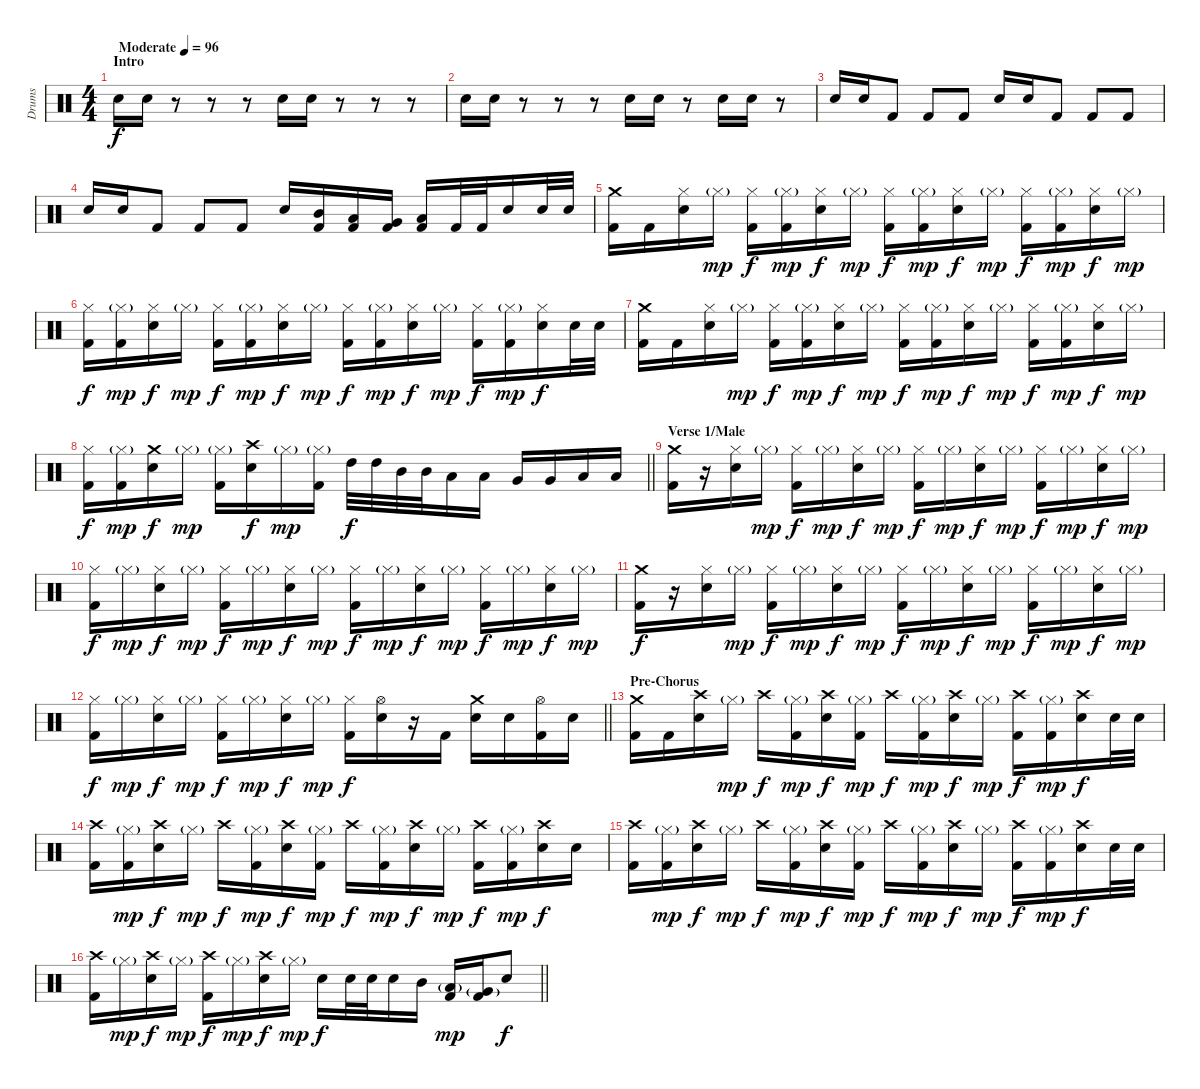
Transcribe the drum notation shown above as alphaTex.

\track ("Drums" "Drums") {instrument percussion}
\staff {score}
\articulation defaults
\ts (4 4)
\section ("" "Intro")
\tempo (96 "Moderate")
\clef neutral
\ks c "Electric Snare (hit)".16{dy f} "Electric Snare (hit)".16
r.8 r.8 r.8 "Electric Snare (hit)".16 "Electric Snare (hit)".16 r.8 r.8 r.8 |
"Electric Snare (hit)".16 "Electric Snare (hit)".16 r.8 r.8 r.8 "Electric Snare (hit)".16 "Electric Snare (hit)".16 r.8 "Electric Snare (hit)".16 "Electric Snare (hit)".16 r.8 |
"Electric Snare (hit)".16 "Electric Snare (hit)".16 "Kick (hit) 2".8 "Kick (hit) 2".8 "Kick (hit) 2".8 "Electric Snare (hit)".16 "Electric Snare (hit)".16 "Kick (hit) 2".8 "Kick (hit) 2".8 "Kick (hit) 2".8 |
"Electric Snare (hit)".16 "Electric Snare (hit)".16 "Kick (hit) 2".8 "Kick (hit) 2".8 "Kick (hit) 2".8 "Electric Snare (hit)".16 ("Mid Tom (hit)" "Kick (hit) 2").16 ("Low Tom (hit)" "Kick (hit) 2").16 ("Very Low Tom (hit)" "Kick (hit) 2").16 ("Low Floor Tom (hit)" "Kick (hit) 2").16 "Kick (hit) 2".32 "Kick (hit) 2".32 "Electric Snare (hit)".16 "Electric Snare (hit)".32 "Electric Snare (hit)".32 |
("Crash medium (hit)" "Kick (hit) 2").16 "Kick (hit) 2".16 ("Hi-Hat (closed)" "Electric Snare (hit)").16 "Hi-Hat (closed)"{g}.16{dy mp} ("Hi-Hat (closed)" "Kick (hit) 2").16{dy f} ("Hi-Hat (closed)"{g} "Kick (hit) 2").16{dy mp} ("Hi-Hat (closed)" "Electric Snare (hit)").16{dy f} "Hi-Hat (closed)"{g}.16{dy mp} ("Hi-Hat (closed)" "Kick (hit) 2").16{dy f} ("Hi-Hat (closed)"{g} "Kick (hit) 2").16{dy mp} ("Hi-Hat (closed)" "Electric Snare (hit)").16{dy f} "Hi-Hat (closed)"{g}.16{dy mp} ("Hi-Hat (closed)" "Kick (hit) 2").16{dy f} ("Hi-Hat (closed)"{g} "Kick (hit) 2").16{dy mp} ("Hi-Hat (closed)" "Electric Snare (hit)").16{dy f} "Hi-Hat (closed)"{g}.16{dy mp} |
("Hi-Hat (closed)" "Kick (hit) 2").16{dy f} ("Hi-Hat (closed)"{g} "Kick (hit) 2").16{dy mp} ("Hi-Hat (closed)" "Electric Snare (hit)").16{dy f} "Hi-Hat (closed)"{g}.16{dy mp} ("Hi-Hat (closed)" "Kick (hit) 2").16{dy f} ("Hi-Hat (closed)"{g} "Kick (hit) 2").16{dy mp} ("Hi-Hat (closed)" "Electric Snare (hit)").16{dy f} "Hi-Hat (closed)"{g}.16{dy mp} ("Hi-Hat (closed)" "Kick (hit) 2").16{dy f} ("Hi-Hat (closed)"{g} "Kick (hit) 2").16{dy mp} ("Hi-Hat (closed)" "Electric Snare (hit)").16{dy f} "Hi-Hat (closed)"{g}.16{dy mp} ("Hi-Hat (closed)" "Kick (hit) 2").16{dy f} ("Hi-Hat (closed)"{g} "Kick (hit) 2").16{dy mp} ("Hi-Hat (closed)" "Electric Snare (hit)").16{dy f} "Electric Snare (hit)".32 "Electric Snare (hit)".32 |
("Crash medium (hit)" "Kick (hit) 2").16 "Kick (hit) 2".16 ("Hi-Hat (closed)" "Electric Snare (hit)").16 "Hi-Hat (closed)"{g}.16{dy mp} ("Hi-Hat (closed)" "Kick (hit) 2").16{dy f} ("Hi-Hat (closed)"{g} "Kick (hit) 2").16{dy mp} ("Hi-Hat (closed)" "Electric Snare (hit)").16{dy f} "Hi-Hat (closed)"{g}.16{dy mp} ("Hi-Hat (closed)" "Kick (hit) 2").16{dy f} ("Hi-Hat (closed)"{g} "Kick (hit) 2").16{dy mp} ("Hi-Hat (closed)" "Electric Snare (hit)").16{dy f} "Hi-Hat (closed)"{g}.16{dy mp} ("Hi-Hat (closed)" "Kick (hit) 2").16{dy f} ("Hi-Hat (closed)"{g} "Kick (hit) 2").16{dy mp} ("Hi-Hat (closed)" "Electric Snare (hit)").16{dy f} "Hi-Hat (closed)"{g}.16{dy mp} |
\barLineRight lightlight
("Hi-Hat (closed)" "Kick (hit) 2").16{dy f} ("Hi-Hat (closed)"{g} "Kick (hit) 2").16{dy mp} ("Crash medium (hit)" "Electric Snare (hit)").16{dy f} "Hi-Hat (closed)"{g}.16{dy mp} ("Hi-Hat (closed)"{g} "Kick (hit) 2").16 ("Crash high (hit)" "Electric Snare (hit)").16{dy f} "Hi-Hat (closed)"{g}.16{dy mp} ("Hi-Hat (closed)"{g} "Kick (hit) 2").16 "High Tom (hit)".32{dy f} "High Tom (hit)".32 "Mid Tom (hit)".32 "Mid Tom (hit)".32 "Low Tom (hit)".16 "Low Tom (hit)".16 "Very Low Tom (hit)".16 "Very Low Tom (hit)".16 "Low Floor Tom (hit)".16 "Low Floor Tom (hit)".16 |
\section ("" "Verse 1/Male")
("Crash medium (hit)" "Kick (hit) 2").16 r.16 ("Hi-Hat (closed)" "Electric Snare (hit)").16 "Hi-Hat (closed)"{g}.16{dy mp} ("Hi-Hat (closed)" "Kick (hit) 2").16{dy f} "Hi-Hat (closed)"{g}.16{dy mp} ("Hi-Hat (closed)" "Electric Snare (hit)").16{dy f} "Hi-Hat (closed)"{g}.16{dy mp} ("Hi-Hat (closed)" "Kick (hit) 2").16{dy f} "Hi-Hat (closed)"{g}.16{dy mp} ("Hi-Hat (closed)" "Electric Snare (hit)").16{dy f} "Hi-Hat (closed)"{g}.16{dy mp} ("Hi-Hat (closed)" "Kick (hit) 2").16{dy f} "Hi-Hat (closed)"{g}.16{dy mp} ("Hi-Hat (closed)" "Electric Snare (hit)").16{dy f} "Hi-Hat (closed)"{g}.16{dy mp} |
("Hi-Hat (closed)" "Kick (hit) 2").16{dy f} "Hi-Hat (closed)"{g}.16{dy mp} ("Hi-Hat (closed)" "Electric Snare (hit)").16{dy f} "Hi-Hat (closed)"{g}.16{dy mp} ("Hi-Hat (closed)" "Kick (hit) 2").16{dy f} "Hi-Hat (closed)"{g}.16{dy mp} ("Hi-Hat (closed)" "Electric Snare (hit)").16{dy f} "Hi-Hat (closed)"{g}.16{dy mp} ("Hi-Hat (closed)" "Kick (hit) 2").16{dy f} "Hi-Hat (closed)"{g}.16{dy mp} ("Hi-Hat (closed)" "Electric Snare (hit)").16{dy f} "Hi-Hat (closed)"{g}.16{dy mp} ("Hi-Hat (closed)" "Kick (hit) 2").16{dy f} "Hi-Hat (closed)"{g}.16{dy mp} ("Hi-Hat (closed)" "Electric Snare (hit)").16{dy f} "Hi-Hat (closed)"{g}.16{dy mp} |
("Crash medium (hit)" "Kick (hit) 2").16{dy f} r.16 ("Hi-Hat (closed)" "Electric Snare (hit)").16 "Hi-Hat (closed)"{g}.16{dy mp} ("Hi-Hat (closed)" "Kick (hit) 2").16{dy f} "Hi-Hat (closed)"{g}.16{dy mp} ("Hi-Hat (closed)" "Electric Snare (hit)").16{dy f} "Hi-Hat (closed)"{g}.16{dy mp} ("Hi-Hat (closed)" "Kick (hit) 2").16{dy f} "Hi-Hat (closed)"{g}.16{dy mp} ("Hi-Hat (closed)" "Electric Snare (hit)").16{dy f} "Hi-Hat (closed)"{g}.16{dy mp} ("Hi-Hat (closed)" "Kick (hit) 2").16{dy f} "Hi-Hat (closed)"{g}.16{dy mp} ("Hi-Hat (closed)" "Electric Snare (hit)").16{dy f} "Hi-Hat (closed)"{g}.16{dy mp} |
\barLineRight lightlight
("Hi-Hat (closed)" "Kick (hit) 2").16{dy f} "Hi-Hat (closed)"{g}.16{dy mp} ("Hi-Hat (closed)" "Electric Snare (hit)").16{dy f} "Hi-Hat (closed)"{g}.16{dy mp} ("Hi-Hat (closed)" "Kick (hit) 2").16{dy f} "Hi-Hat (closed)"{g}.16{dy mp} ("Hi-Hat (closed)" "Electric Snare (hit)").16{dy f} "Hi-Hat (closed)"{g}.16{dy mp} ("Hi-Hat (closed)" "Kick (hit) 2").16{dy f} ("Hi-Hat (open)" "Electric Snare (hit)").16 r.16 "Kick (hit) 2".16 ("Crash medium (hit)" "Electric Snare (hit)").16 "Electric Snare (hit)".16 ("Hi-Hat (open)" "Kick (hit) 2").16 "Electric Snare (hit)".16 |
\section ("" "Pre-Chorus")
("Crash medium (hit)" "Kick (hit) 2").16 "Kick (hit) 2".16 ("Crash high (hit)" "Electric Snare (hit)").16 "Hi-Hat (closed)"{g}.16{dy mp} "Crash high (hit)".16{dy f} ("Hi-Hat (closed)"{g} "Kick (hit) 2").16{dy mp} ("Crash high (hit)" "Electric Snare (hit)").16{dy f} ("Hi-Hat (closed)"{g} "Kick (hit) 2").16{dy mp} "Crash high (hit)".16{dy f} ("Hi-Hat (closed)"{g} "Kick (hit) 2").16{dy mp} ("Crash high (hit)" "Electric Snare (hit)").16{dy f} "Hi-Hat (closed)"{g}.16{dy mp} ("Crash high (hit)" "Kick (hit) 2").16{dy f} ("Hi-Hat (closed)"{g} "Kick (hit) 2").16{dy mp} ("Crash high (hit)" "Electric Snare (hit)").16{dy f} "Electric Snare (hit)".32 "Electric Snare (hit)".32 |
("Crash high (hit)" "Kick (hit) 2").16 ("Hi-Hat (closed)"{g} "Kick (hit) 2").16{dy mp} ("Crash high (hit)" "Electric Snare (hit)").16{dy f} "Hi-Hat (closed)"{g}.16{dy mp} "Crash high (hit)".16{dy f} ("Hi-Hat (closed)"{g} "Kick (hit) 2").16{dy mp} ("Crash high (hit)" "Electric Snare (hit)").16{dy f} ("Hi-Hat (closed)"{g} "Kick (hit) 2").16{dy mp} "Crash high (hit)".16{dy f} ("Hi-Hat (closed)"{g} "Kick (hit) 2").16{dy mp} ("Crash high (hit)" "Electric Snare (hit)").16{dy f} "Hi-Hat (closed)"{g}.16{dy mp} ("Crash high (hit)" "Kick (hit) 2").16{dy f} ("Hi-Hat (closed)"{g} "Kick (hit) 2").16{dy mp} ("Crash high (hit)" "Electric Snare (hit)").16{dy f} "Electric Snare (hit)".16 |
("Crash high (hit)" "Kick (hit) 2").16 ("Hi-Hat (closed)"{g} "Kick (hit) 2").16{dy mp} ("Crash high (hit)" "Electric Snare (hit)").16{dy f} "Hi-Hat (closed)"{g}.16{dy mp} "Crash high (hit)".16{dy f} ("Hi-Hat (closed)"{g} "Kick (hit) 2").16{dy mp} ("Crash high (hit)" "Electric Snare (hit)").16{dy f} ("Hi-Hat (closed)"{g} "Kick (hit) 2").16{dy mp} "Crash high (hit)".16{dy f} ("Hi-Hat (closed)"{g} "Kick (hit) 2").16{dy mp} ("Crash high (hit)" "Electric Snare (hit)").16{dy f} "Hi-Hat (closed)"{g}.16{dy mp} ("Crash high (hit)" "Kick (hit) 2").16{dy f} ("Hi-Hat (closed)"{g} "Kick (hit) 2").16{dy mp} ("Crash high (hit)" "Electric Snare (hit)").16{dy f} "Electric Snare (hit)".32 "Electric Snare (hit)".32 |
\barLineRight lightlight
("Crash high (hit)" "Kick (hit) 2").16 "Hi-Hat (closed)"{g}.16{dy mp} ("Crash high (hit)" "Electric Snare (hit)").16{dy f} "Hi-Hat (closed)"{g}.16{dy mp} ("Crash high (hit)" "Kick (hit) 2").16{dy f} "Hi-Hat (closed)"{g}.16{dy mp} ("Crash high (hit)" "Electric Snare (hit)").16{dy f} "Hi-Hat (closed)"{g}.16{dy mp} "Electric Snare (hit)".16{dy f} "Electric Snare (hit)".32 "Electric Snare (hit)".32 "Electric Snare (hit)".16 "Mid Tom (hit)".16 ("Low Tom (hit)"{g} "Kick (hit) 2").16{dy mp} ("Very Low Tom (hit)"{g} "Kick (hit) 2").16 "Electric Snare (hit)".8{dy f}
